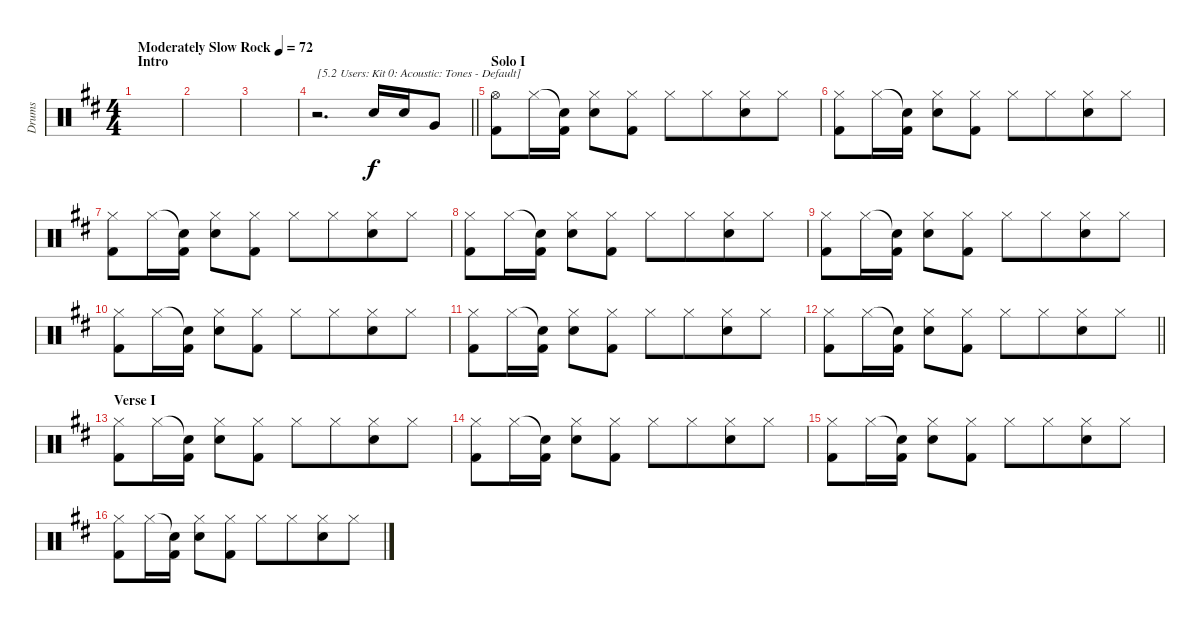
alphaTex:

\track ("Drums" "Drums") {instrument percussion}
\staff {score}
\articulation defaults
\ts (4 4)
\section ("" "Intro")
\tempo (72 "Moderately Slow Rock")
\clef neutral
\ks d
|
|
|
\barLineRight lightlight
r.2{d txt "[5.2 Users: Kit 0: Acoustic: Tones - Default]"} "Snare (hit) 2".16 "Snare (hit) 2".16 "Very Low Tom (hit)".8 |
\section ("" "Solo I")
("Hi-Hat (open)" "Kick (hit) 2").8 "Hi-Hat (closed)".16 ("Snare (hit)"{t} "Kick (hit) 2").16 ("Hi-Hat (closed)" "Snare (hit) 2").8 ("Hi-Hat (closed)" "Kick (hit) 2").8 "Hi-Hat (closed)".8 "Hi-Hat (closed)".8{beam merge} ("Hi-Hat (closed)" "Snare (hit) 2").8 "Hi-Hat (closed)".8 |
("Hi-Hat (closed)" "Kick (hit) 2").8 "Hi-Hat (closed)".16 ("Snare (hit)"{t} "Kick (hit) 2").16 ("Hi-Hat (closed)" "Snare (hit) 2").8 ("Hi-Hat (closed)" "Kick (hit) 2").8 "Hi-Hat (closed)".8 "Hi-Hat (closed)".8{beam merge} ("Hi-Hat (closed)" "Snare (hit) 2").8 "Hi-Hat (closed)".8 |
("Hi-Hat (closed)" "Kick (hit) 2").8 "Hi-Hat (closed)".16 ("Snare (hit)"{t} "Kick (hit) 2").16 ("Hi-Hat (closed)" "Snare (hit) 2").8 ("Hi-Hat (closed)" "Kick (hit) 2").8 "Hi-Hat (closed)".8 "Hi-Hat (closed)".8{beam merge} ("Hi-Hat (closed)" "Snare (hit) 2").8 "Hi-Hat (closed)".8 |
("Hi-Hat (closed)" "Kick (hit) 2").8 "Hi-Hat (closed)".16 ("Snare (hit)"{t} "Kick (hit) 2").16 ("Hi-Hat (closed)" "Snare (hit) 2").8 ("Hi-Hat (closed)" "Kick (hit) 2").8 "Hi-Hat (closed)".8 "Hi-Hat (closed)".8{beam merge} ("Hi-Hat (closed)" "Snare (hit) 2").8 "Hi-Hat (closed)".8 |
("Hi-Hat (closed)" "Kick (hit) 2").8 "Hi-Hat (closed)".16 ("Snare (hit)"{t} "Kick (hit) 2").16 ("Hi-Hat (closed)" "Snare (hit) 2").8 ("Hi-Hat (closed)" "Kick (hit) 2").8 "Hi-Hat (closed)".8 "Hi-Hat (closed)".8{beam merge} ("Hi-Hat (closed)" "Snare (hit) 2").8 "Hi-Hat (closed)".8 |
("Hi-Hat (closed)" "Kick (hit) 2").8 "Hi-Hat (closed)".16 ("Snare (hit)"{t} "Kick (hit) 2").16 ("Hi-Hat (closed)" "Snare (hit) 2").8 ("Hi-Hat (closed)" "Kick (hit) 2").8 "Hi-Hat (closed)".8 "Hi-Hat (closed)".8{beam merge} ("Hi-Hat (closed)" "Snare (hit) 2").8 "Hi-Hat (closed)".8 |
("Hi-Hat (closed)" "Kick (hit) 2").8 "Hi-Hat (closed)".16 ("Snare (hit)"{t} "Kick (hit) 2").16 ("Hi-Hat (closed)" "Snare (hit) 2").8 ("Hi-Hat (closed)" "Kick (hit) 2").8 "Hi-Hat (closed)".8 "Hi-Hat (closed)".8{beam merge} ("Hi-Hat (closed)" "Snare (hit) 2").8 "Hi-Hat (closed)".8 |
\barLineRight lightlight
("Hi-Hat (closed)" "Kick (hit) 2").8 "Hi-Hat (closed)".16 ("Snare (hit)"{t} "Kick (hit) 2").16 ("Hi-Hat (closed)" "Snare (hit) 2").8 ("Hi-Hat (closed)" "Kick (hit) 2").8 "Hi-Hat (closed)".8 "Hi-Hat (closed)".8{beam merge} ("Hi-Hat (closed)" "Snare (hit) 2").8 "Hi-Hat (closed)".8 |
\section ("" "Verse I")
("Hi-Hat (closed)" "Kick (hit) 2").8 "Hi-Hat (closed)".16 ("Snare (hit)"{t} "Kick (hit) 2").16 ("Hi-Hat (closed)" "Snare (hit) 2").8 ("Hi-Hat (closed)" "Kick (hit) 2").8 "Hi-Hat (closed)".8 "Hi-Hat (closed)".8{beam merge} ("Hi-Hat (closed)" "Snare (hit) 2").8 "Hi-Hat (closed)".8 |
("Hi-Hat (closed)" "Kick (hit) 2").8 "Hi-Hat (closed)".16 ("Snare (hit)"{t} "Kick (hit) 2").16 ("Hi-Hat (closed)" "Snare (hit) 2").8 ("Hi-Hat (closed)" "Kick (hit) 2").8 "Hi-Hat (closed)".8 "Hi-Hat (closed)".8{beam merge} ("Hi-Hat (closed)" "Snare (hit) 2").8 "Hi-Hat (closed)".8 |
("Hi-Hat (closed)" "Kick (hit) 2").8 "Hi-Hat (closed)".16 ("Snare (hit)"{t} "Kick (hit) 2").16 ("Hi-Hat (closed)" "Snare (hit) 2").8 ("Hi-Hat (closed)" "Kick (hit) 2").8 "Hi-Hat (closed)".8 "Hi-Hat (closed)".8{beam merge} ("Hi-Hat (closed)" "Snare (hit) 2").8 "Hi-Hat (closed)".8 |
("Hi-Hat (closed)" "Kick (hit) 2").8 "Hi-Hat (closed)".16 ("Snare (hit)"{t} "Kick (hit) 2").16 ("Hi-Hat (closed)" "Snare (hit) 2").8 ("Hi-Hat (closed)" "Kick (hit) 2").8 "Hi-Hat (closed)".8 "Hi-Hat (closed)".8{beam merge} ("Hi-Hat (closed)" "Snare (hit) 2").8 "Hi-Hat (closed)".8
